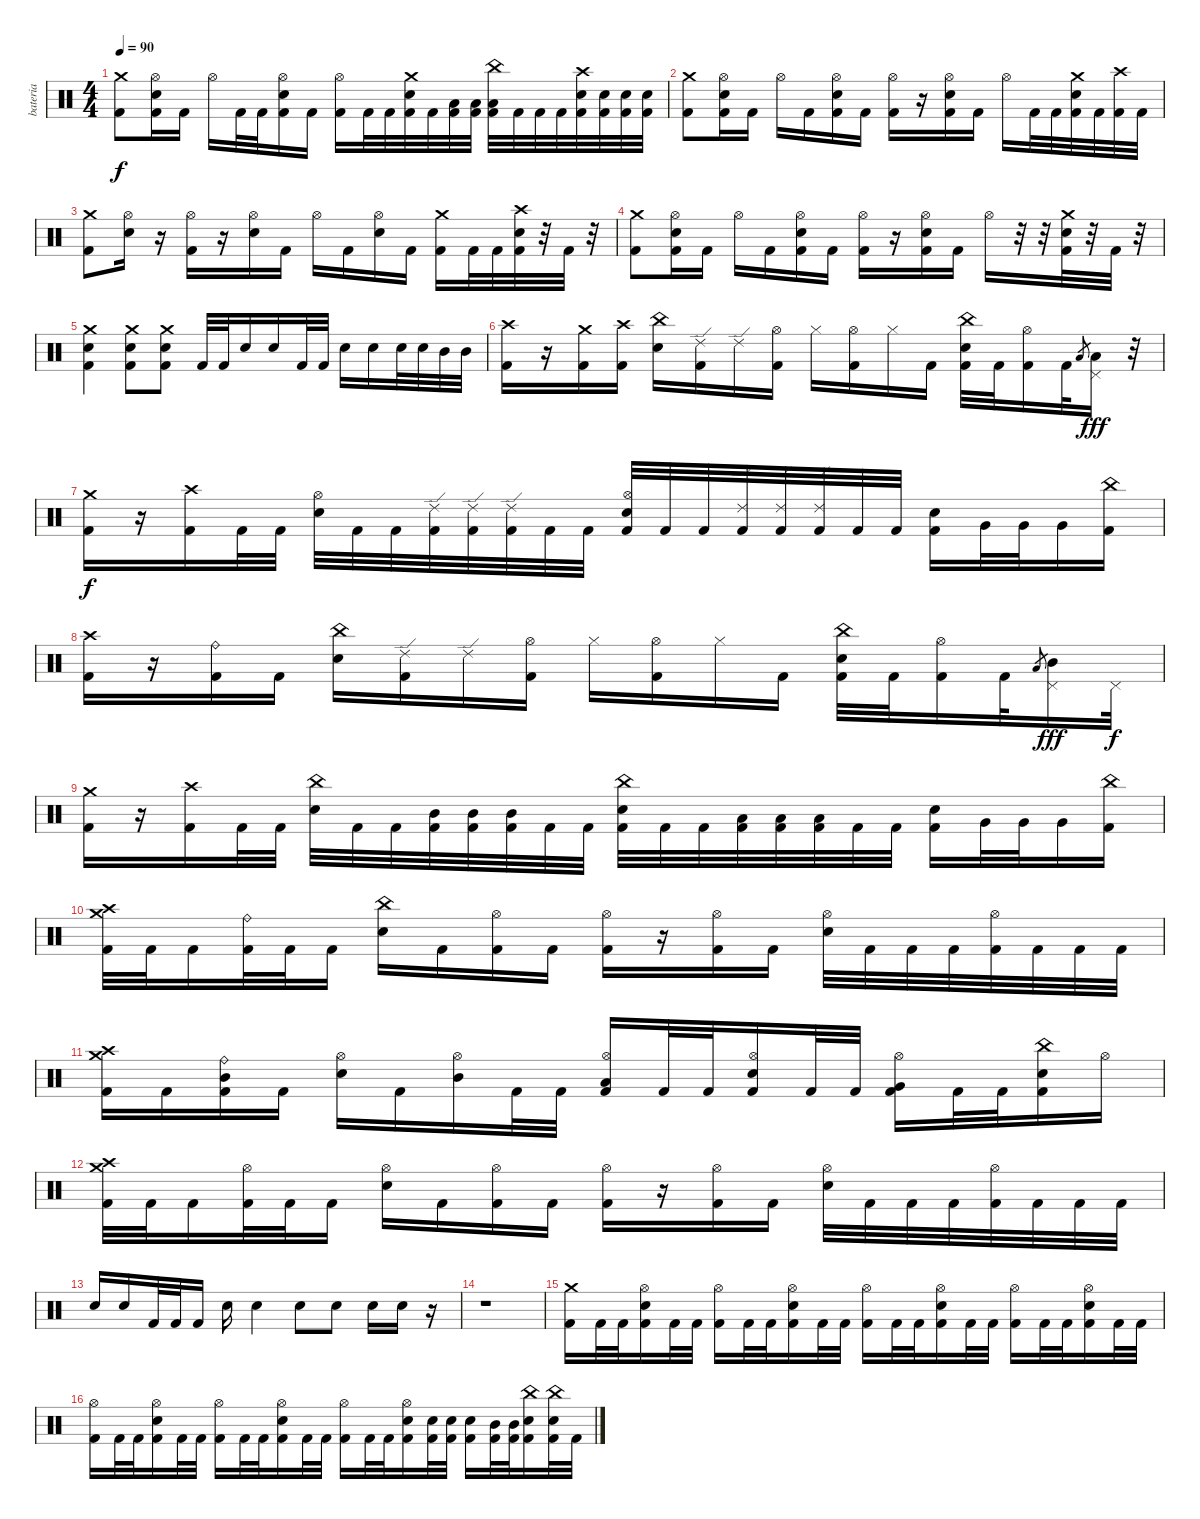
\track ("bateria" "bateria") {instrument percussion}
\staff {score}
\articulation defaults
\ts (4 4)
\tempo 90
\clef neutral
\ks c
("Crash medium (hit)" "Kick (hit) 2").8{dy f} ("Hi-Hat (open)" "Snare (hit) 2" "Kick (hit) 2").16 "Kick (hit) 2".16 "Hi-Hat (open)".16 "Kick (hit) 2".32 "Kick (hit) 2".32 ("Hi-Hat (open)" "Snare (hit) 2" "Kick (hit) 2").16 "Kick (hit) 2".16 ("Hi-Hat (open)" "Kick (hit) 2").16 "Kick (hit) 2".32 "Kick (hit) 2".32 ("Crash medium (hit)" "Snare (hit) 2" "Kick (hit) 2").32 "Kick (hit) 2".32 ("Low Tom (hit)" "Kick (hit) 2").32 ("Low Tom (hit)" "Kick (hit) 2").32 ("China (hit)" "Low Tom (hit)" "Kick (hit) 2").32 "Kick (hit) 2".32 "Kick (hit) 2".32 "Kick (hit) 2".32 ("Crash high (hit)" "Snare (hit) 2" "Kick (hit) 2").32 ("Snare (hit) 2" "Kick (hit) 2").32 ("Snare (hit) 2" "Kick (hit) 2").32 ("Snare (hit) 2" "Kick (hit) 2").32 |
("Crash medium (hit)" "Kick (hit) 2").8 ("Hi-Hat (open)" "Snare (hit) 2" "Kick (hit) 2").16 "Kick (hit) 2".16 "Hi-Hat (open)".16 "Kick (hit) 2".16 ("Hi-Hat (open)" "Snare (hit) 2" "Kick (hit) 2").16 "Kick (hit) 2".16 ("Hi-Hat (open)" "Kick (hit) 2").16 r.16 ("Hi-Hat (open)" "Snare (hit) 2" "Kick (hit) 2").16 "Kick (hit) 2".16 "Hi-Hat (open)".16 "Kick (hit) 2".32 "Kick (hit) 2".32 ("Crash medium (hit)" "Snare (hit) 2" "Kick (hit) 2").32 "Kick (hit) 2".32 ("Crash high (hit)" "Kick (hit) 2").32 "Kick (hit) 2".32 |
("Crash medium (hit)" "Kick (hit) 2").8 ("Hi-Hat (open)" "Snare (hit) 2").16 r.16 ("Hi-Hat (open)" "Kick (hit) 2").16 r.16 ("Hi-Hat (open)" "Snare (hit) 2").16 "Kick (hit) 2".16 "Hi-Hat (open)".16 "Kick (hit) 2".16 ("Hi-Hat (open)" "Snare (hit) 2").16 "Kick (hit) 2".16 ("Crash medium (hit)" "Kick (hit) 2").16 "Kick (hit) 2".32 "Kick (hit) 2".32 ("Crash high (hit)" "Snare (hit) 2" "Kick (hit) 2").32 r.32 "Kick (hit) 2".32 r.32 |
("Crash medium (hit)" "Kick (hit) 2").8 ("Hi-Hat (open)" "Snare (hit) 2" "Kick (hit) 2").16 "Kick (hit) 2".16 "Hi-Hat (open)".16 "Kick (hit) 2".16 ("Hi-Hat (open)" "Snare (hit) 2" "Kick (hit) 2").16 "Kick (hit) 2".16 ("Hi-Hat (open)" "Kick (hit) 2").16 r.16 ("Hi-Hat (open)" "Snare (hit) 2" "Kick (hit) 2").16 "Kick (hit) 2".16 "Hi-Hat (open)".16 r.32 r.32 ("Crash medium (hit)" "Snare (hit) 2" "Kick (hit) 2").32 r.32 "Kick (hit) 2".32 r.32 |
("Crash medium (hit)" "Snare (hit) 2" "Kick (hit) 2").4 ("Crash medium (hit)" "Snare (hit) 2" "Kick (hit) 2").8 ("Crash medium (hit)" "Snare (hit) 2" "Kick (hit) 2").8 "Kick (hit) 2".32 "Kick (hit) 2".32 "Snare (hit) 2".16 "Snare (hit) 2".16 "Kick (hit) 2".32 "Kick (hit) 2".32 "Snare (hit) 2".16 "Snare (hit) 2".16 "Snare (hit) 2".32 "Snare (hit) 2".32 "Mid Tom (hit)".32 "Mid Tom (hit)".32 |
("Crash high (hit)" "Kick (hit) 2").16 r.16 ("Crash medium (hit)" "Kick (hit) 2").16 ("Crash high (hit)" "Kick (hit) 2").16 ("China (hit)" "Snare (hit) 2").16 ("Ride (edge) 2" "Kick (hit) 2").16 "Ride (edge) 2".16 ("Hi-Hat (open)" "Kick (hit) 2").16 "Hi-Hat (closed)".16 ("Hi-Hat (open)" "Kick (hit) 2").16 "Hi-Hat (closed)".16 "Kick (hit) 2".16 ("China (hit)" "Snare (hit) 2" "Kick (hit) 2").32 "Kick (hit) 2".32 ("Hi-Hat (open)" "Kick (hit) 2").16 "Kick (hit) 2".32 "Low Floor Tom (hit)".8{gr} ("Pedal Hi-Hat (hit)" "Low Floor Tom (hit)").16{dy fff} r.32 |
("Crash medium (hit)" "Kick (hit) 2").16{dy f} r.16 ("Crash high (hit)" "Kick (hit) 2").16 "Kick (hit) 2".32 "Kick (hit) 2".32 ("Hi-Hat (open)" "Snare (hit) 2").32 "Kick (hit) 2".32 "Kick (hit) 2".32 ("Ride (edge) 2" "Kick (hit) 2").32 ("Ride (edge) 2" "Kick (hit) 2").32 ("Ride (edge) 2" "Kick (hit) 2").32 "Kick (hit) 2".32 "Kick (hit) 2".32 ("Hi-Hat (open)" "Snare (hit) 2" "Kick (hit) 2").32 "Kick (hit) 2".32 "Kick (hit) 2".32 ("Ride (edge) 2" "Kick (hit) 2").32 ("Ride (edge) 2" "Kick (hit) 2").32 ("Ride (edge) 2" "Kick (hit) 2").32 "Kick (hit) 2".32 "Kick (hit) 2".32 ("Snare (hit) 2" "Kick (hit) 2").16 "Very Low Tom (hit)".32 "Very Low Tom (hit)".32 "Very Low Tom (hit)".16 ("China (hit)" "Kick (hit) 2").16 |
("Crash high (hit)" "Kick (hit) 2").16 r.16 ("Ride (bell)" "Kick (hit) 2").16 "Kick (hit) 2".16 ("China (hit)" "Snare (hit) 2").16 ("Ride (edge) 2" "Kick (hit) 2").16 "Ride (edge) 2".16 ("Hi-Hat (open)" "Kick (hit) 2").16 "Hi-Hat (closed)".16 ("Hi-Hat (open)" "Kick (hit) 2").16 "Hi-Hat (closed)".16 "Kick (hit) 2".16 ("China (hit)" "Snare (hit) 2" "Kick (hit) 2").32 "Kick (hit) 2".32 ("Hi-Hat (open)" "Kick (hit) 2").16 "Kick (hit) 2".32 "Low Floor Tom (hit)".8{gr} ("Pedal Hi-Hat (hit)" "Mid Tom (hit)").16{dy fff} "Pedal Hi-Hat (hit)".32{dy f} |
("Crash medium (hit)" "Kick (hit) 2").16 r.16 ("Crash high (hit)" "Kick (hit) 2").16 "Kick (hit) 2".32 "Kick (hit) 2".32 ("China (hit)" "Snare (hit) 2").32 "Kick (hit) 2".32 "Kick (hit) 2".32 ("Mid Tom (hit)" "Kick (hit) 2").32 ("Mid Tom (hit)" "Kick (hit) 2").32 ("Mid Tom (hit)" "Kick (hit) 2").32 "Kick (hit) 2".32 "Kick (hit) 2".32 ("China (hit)" "Snare (hit) 2" "Kick (hit) 2").32 "Kick (hit) 2".32 "Kick (hit) 2".32 ("Low Tom (hit)" "Kick (hit) 2").32 ("Low Tom (hit)" "Kick (hit) 2").32 ("Low Tom (hit)" "Kick (hit) 2").32 "Kick (hit) 2".32 "Kick (hit) 2".32 ("Snare (hit) 2" "Kick (hit) 2").16 "Very Low Tom (hit)".32 "Very Low Tom (hit)".32 "Very Low Tom (hit)".16 ("China (hit)" "Kick (hit) 2").16 |
("Crash medium (hit)" "Crash high (hit)" "Kick (hit) 2").32 "Kick (hit) 2".32 "Kick (hit) 2".16 ("Ride (bell)" "Kick (hit) 2").32 "Kick (hit) 2".32 "Kick (hit) 2".16 ("China (hit)" "Snare (hit) 2").16 "Kick (hit) 2".16 ("Hi-Hat (open)" "Kick (hit) 2").16 "Kick (hit) 2".16 ("Hi-Hat (open)" "Kick (hit) 2").16 r.16 ("Hi-Hat (open)" "Kick (hit) 2").16 "Kick (hit) 2".16 ("Hi-Hat (open)" "Snare (hit) 2").32 "Kick (hit) 2".32 "Kick (hit) 2".32 "Kick (hit) 2".32 ("Hi-Hat (open)" "Kick (hit) 2").32 "Kick (hit) 2".32 "Kick (hit) 2".32 "Kick (hit) 2".32 |
("Crash high (hit)" "Crash medium (hit)" "Kick (hit) 2").16 "Kick (hit) 2".16 ("Ride (bell)" "Mid Tom (hit)" "Kick (hit) 2").16 "Kick (hit) 2".16 ("Hi-Hat (open)" "Snare (hit) 2").16 "Kick (hit) 2".16 ("Hi-Hat (open)" "Mid Tom (hit)").16 "Kick (hit) 2".32 "Kick (hit) 2".32 ("Hi-Hat (open)" "Low Tom (hit)" "Kick (hit) 2").16 "Kick (hit) 2".32 "Kick (hit) 2".32 ("Hi-Hat (open)" "Snare (hit) 2" "Kick (hit) 2").16 "Kick (hit) 2".32 "Kick (hit) 2".32 ("Hi-Hat (open)" "Very Low Tom (hit)" "Kick (hit) 2").16 "Kick (hit) 2".32 "Kick (hit) 2".32 ("China (hit)" "Snare (hit) 2" "Kick (hit) 2").16 "Hi-Hat (open)".16 |
("Crash medium (hit)" "Crash high (hit)" "Kick (hit) 2").32 "Kick (hit) 2".32 "Kick (hit) 2".16 ("Hi-Hat (open)" "Kick (hit) 2").32 "Kick (hit) 2".32 "Kick (hit) 2".16 ("Hi-Hat (open)" "Snare (hit) 2").16 "Kick (hit) 2".16 ("Hi-Hat (open)" "Kick (hit) 2").16 "Kick (hit) 2".16 ("Hi-Hat (open)" "Kick (hit) 2").16 r.16 ("Hi-Hat (open)" "Kick (hit) 2").16 "Kick (hit) 2".16 ("Hi-Hat (open)" "Snare (hit) 2").32 "Kick (hit) 2".32 "Kick (hit) 2".32 "Kick (hit) 2".32 ("Hi-Hat (open)" "Kick (hit) 2").32 "Kick (hit) 2".32 "Kick (hit) 2".32 "Kick (hit) 2".32 |
"Snare (hit) 2".16 "Snare (hit) 2".16 "Kick (hit) 2".32 "Kick (hit) 2".32 "Kick (hit) 2".16 "Snare (hit) 2".16 "Snare (hit) 2".4 "Snare (hit) 2".8 "Snare (hit) 2".8 "Snare (hit) 2".16 "Snare (hit) 2".16 r.16 |
r.1 |
("Crash medium (hit)" "Kick (hit) 2").16 "Kick (hit) 2".32 "Kick (hit) 2".32 ("Hi-Hat (open)" "Snare (hit) 2" "Kick (hit) 2").16 "Kick (hit) 2".32 "Kick (hit) 2".32 ("Hi-Hat (open)" "Kick (hit) 2").16 "Kick (hit) 2".32 "Kick (hit) 2".32 ("Hi-Hat (open)" "Snare (hit) 2" "Kick (hit) 2").16 "Kick (hit) 2".32 "Kick (hit) 2".32 ("Hi-Hat (open)" "Kick (hit) 2").16 "Kick (hit) 2".32 "Kick (hit) 2".32 ("Hi-Hat (open)" "Snare (hit) 2" "Kick (hit) 2").16 "Kick (hit) 2".32 "Kick (hit) 2".32 ("Hi-Hat (open)" "Kick (hit) 2").16 "Kick (hit) 2".32 "Kick (hit) 2".32 ("Hi-Hat (open)" "Snare (hit) 2" "Kick (hit) 2").16 "Kick (hit) 2".32 "Kick (hit) 2".32 |
("Hi-Hat (open)" "Kick (hit) 2").16 "Kick (hit) 2".32 "Kick (hit) 2".32 ("Hi-Hat (open)" "Snare (hit) 2" "Kick (hit) 2").16 "Kick (hit) 2".32 "Kick (hit) 2".32 ("Hi-Hat (open)" "Kick (hit) 2").16 "Kick (hit) 2".32 "Kick (hit) 2".32 ("Hi-Hat (open)" "Snare (hit) 2" "Kick (hit) 2").16 "Kick (hit) 2".32 "Kick (hit) 2".32 ("Hi-Hat (open)" "Kick (hit) 2").16 "Kick (hit) 2".32 "Kick (hit) 2".32 ("Hi-Hat (open)" "Snare (hit) 2" "Kick (hit) 2").16 ("Snare (hit) 2" "Kick (hit) 2").32 ("Snare (hit) 2" "Kick (hit) 2").32 ("Snare (hit) 2" "Kick (hit) 2").16 ("Mid Tom (hit)" "Kick (hit) 2").32 ("Mid Tom (hit)" "Kick (hit) 2").32 ("China (hit)" "Snare (hit) 2" "Kick (hit) 2").16 ("China (hit)" "Snare (hit) 2" "Kick (hit) 2").32 "Kick (hit) 2".32
